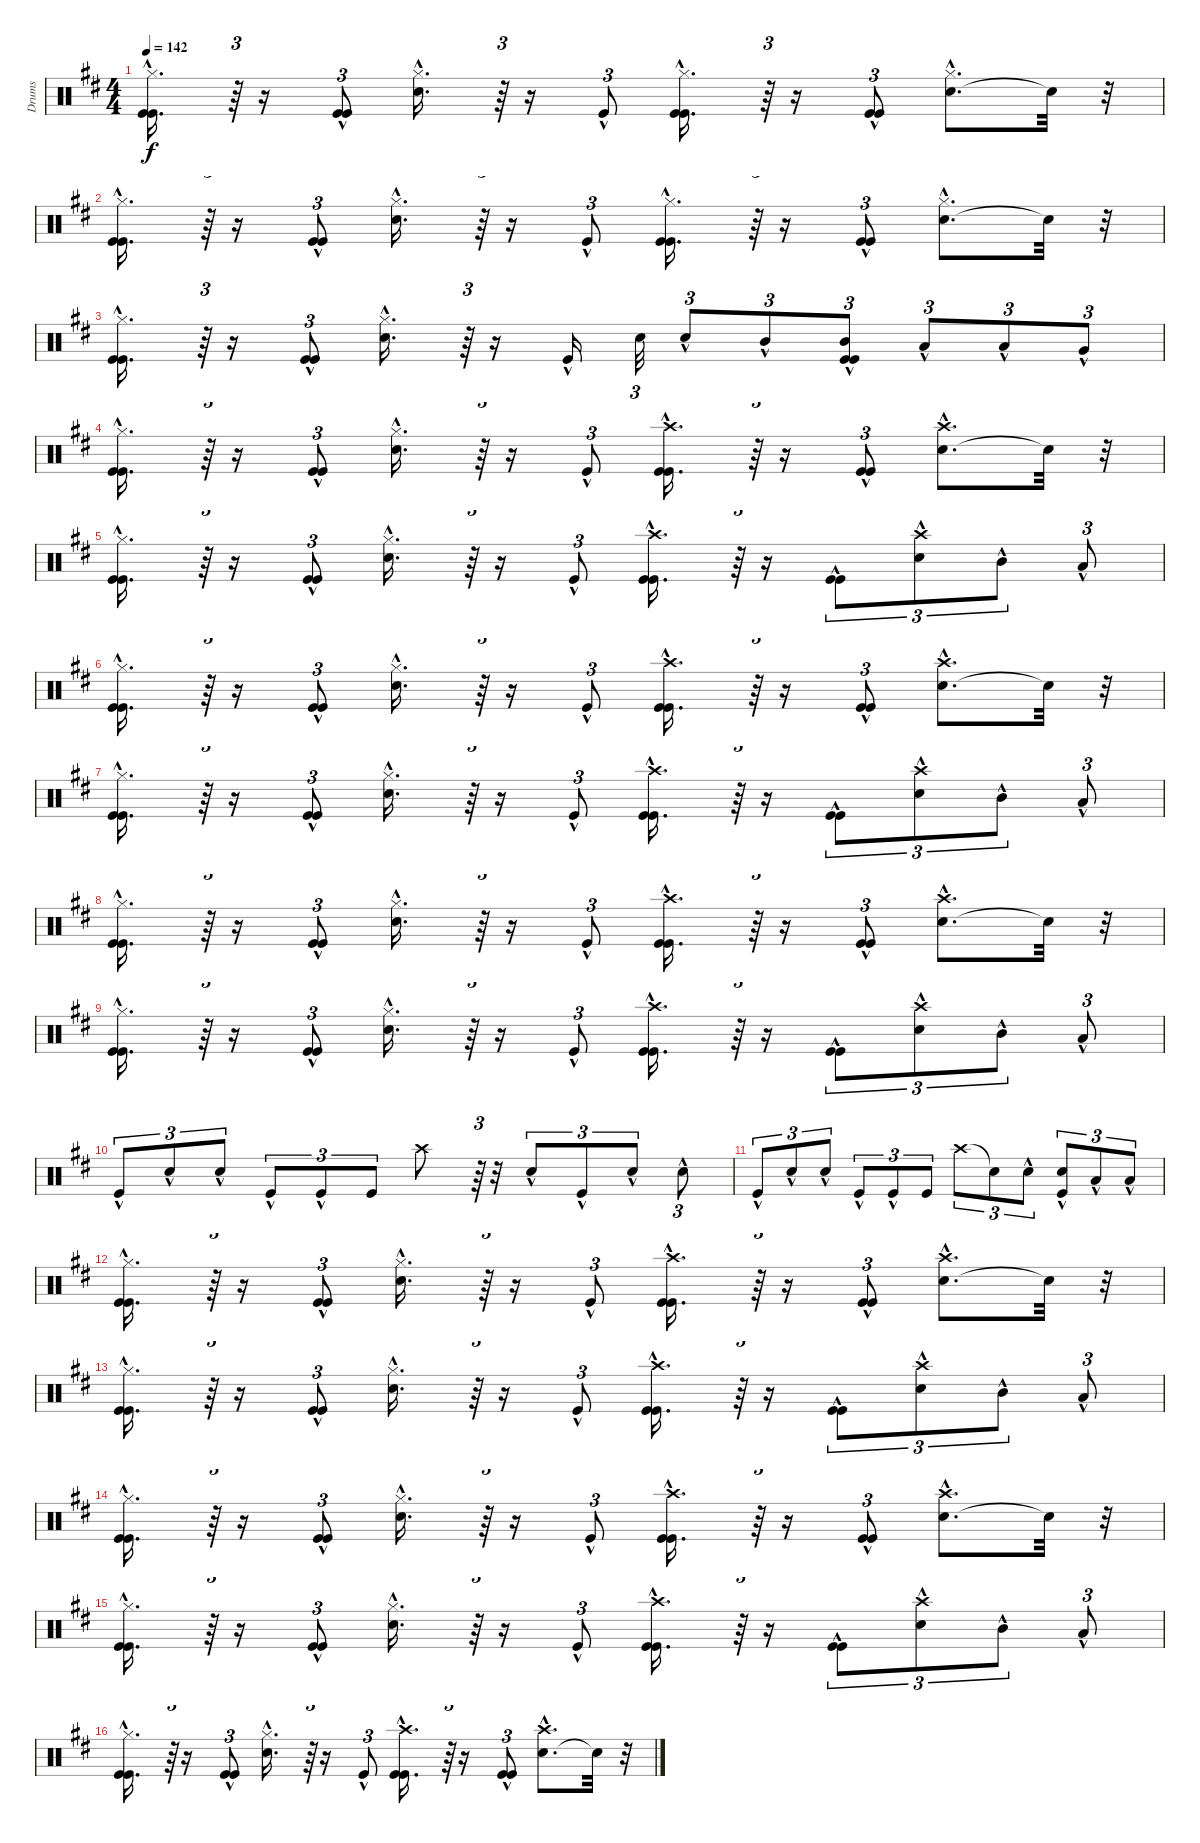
\track ("Drums" "Drums") {instrument percussion}
\staff {score}
\articulation defaults
\ts (4 4)
\tempo 142
\clef neutral
\ks bminor
("Kick (hit)"{hac} "Kick (hit)"{hac} "Hi-Hat (closed)"{hac}).16{d dy f} r.64{tu (3 2)} r.16 ("Kick (hit)"{hac} "Kick (hit)"{hac}).8{tu (3 2)} ("Snare (hit) 2"{hac} "Hi-Hat (closed)"{hac}).16{d} r.64{tu (3 2)} r.16 "Kick (hit)"{hac}.8{tu (3 2)} ("Kick (hit)"{hac} "Kick (hit)"{hac} "Hi-Hat (closed)"{hac}).16{d} r.64{tu (3 2)} r.16 ("Kick (hit)"{hac} "Kick (hit)"{hac}).8{tu (3 2)} ("Snare (hit) 2"{hac} "Hi-Hat (closed)"{hac}).8{d} "Snare (hit)"{t}.32 r.32 |
("Kick (hit)"{hac} "Kick (hit)"{hac} "Hi-Hat (closed)"{hac}).16{d} r.64{tu (3 2)} r.16 ("Kick (hit)"{hac} "Kick (hit)"{hac}).8{tu (3 2)} ("Snare (hit) 2"{hac} "Hi-Hat (closed)"{hac}).16{d} r.64{tu (3 2)} r.16 "Kick (hit)"{hac}.8{tu (3 2)} ("Kick (hit)"{hac} "Kick (hit)"{hac} "Hi-Hat (closed)"{hac}).16{d} r.64{tu (3 2)} r.16 ("Kick (hit)"{hac} "Kick (hit)"{hac}).8{tu (3 2)} ("Snare (hit) 2"{hac} "Hi-Hat (closed)"{hac}).8{d} "Snare (hit)"{t}.32 r.32 |
("Kick (hit)"{hac} "Kick (hit)"{hac} "Hi-Hat (closed)"{hac}).16{d} r.64{tu (3 2)} r.16 ("Kick (hit)"{hac} "Kick (hit)"{hac}).8{tu (3 2)} ("Snare (hit) 2"{hac} "Hi-Hat (closed)"{hac}).16{d} r.64{tu (3 2)} r.16 "Kick (hit)"{hac}.16 "Snare (hit) 2".32{tu (3 2)} "Snare (hit) 2"{hac}.8{tu (3 2)} "Mid Tom (hit)"{hac}.8{tu (3 2)} ("Kick (hit)"{hac} "Kick (hit)"{hac} "Mid Tom (hit)"{hac}).8{tu (3 2)} "Low Tom (hit)"{hac}.8{tu (3 2)} "Low Tom (hit)"{hac}.8{tu (3 2)} "Very Low Tom (hit)"{hac}.8{tu (3 2)} |
("Kick (hit)"{hac} "Kick (hit)"{hac} "Hi-Hat (closed)"{hac}).16{d} r.64{tu (3 2)} r.16 ("Kick (hit)"{hac} "Kick (hit)"{hac}).8{tu (3 2)} ("Snare (hit) 2"{hac} "Hi-Hat (closed)"{hac}).16{d} r.64{tu (3 2)} r.16 "Kick (hit)"{hac}.8{tu (3 2)} ("Kick (hit)"{hac} "Kick (hit)"{hac} "Crash high (hit)"{hac}).16{d} r.64{tu (3 2)} r.16 ("Kick (hit)"{hac} "Kick (hit)"{hac}).8{tu (3 2)} ("Snare (hit) 2"{hac} "Crash high (hit)"{hac}).8{d} "Snare (hit)"{t}.32 r.32 |
("Kick (hit)"{hac} "Kick (hit)"{hac} "Hi-Hat (closed)"{hac}).16{d} r.64{tu (3 2)} r.16 ("Kick (hit)"{hac} "Kick (hit)"{hac}).8{tu (3 2)} ("Snare (hit) 2"{hac} "Hi-Hat (closed)"{hac}).16{d} r.64{tu (3 2)} r.16 "Kick (hit)"{hac}.8{tu (3 2)} ("Kick (hit)"{hac} "Kick (hit)"{hac} "Crash high (hit)"{hac}).16{d} r.64{tu (3 2)} r.16 ("Kick (hit)"{hac} "Kick (hit)"{hac}).8{tu (3 2)} ("Snare (hit) 2"{hac} "Crash high (hit)"{hac}).8{tu (3 2)} "Mid Tom (hit)"{hac}.8{tu (3 2)} "Low Tom (hit)"{hac}.8{tu (3 2)} |
("Kick (hit)"{hac} "Kick (hit)"{hac} "Hi-Hat (closed)"{hac}).16{d} r.64{tu (3 2)} r.16 ("Kick (hit)"{hac} "Kick (hit)"{hac}).8{tu (3 2)} ("Snare (hit) 2"{hac} "Hi-Hat (closed)"{hac}).16{d} r.64{tu (3 2)} r.16 "Kick (hit)"{hac}.8{tu (3 2)} ("Kick (hit)"{hac} "Kick (hit)"{hac} "Crash high (hit)"{hac}).16{d} r.64{tu (3 2)} r.16 ("Kick (hit)"{hac} "Kick (hit)"{hac}).8{tu (3 2)} ("Snare (hit) 2"{hac} "Crash high (hit)"{hac}).8{d} "Snare (hit)"{t}.32 r.32 |
("Kick (hit)"{hac} "Kick (hit)"{hac} "Hi-Hat (closed)"{hac}).16{d} r.64{tu (3 2)} r.16 ("Kick (hit)"{hac} "Kick (hit)"{hac}).8{tu (3 2)} ("Snare (hit) 2"{hac} "Hi-Hat (closed)"{hac}).16{d} r.64{tu (3 2)} r.16 "Kick (hit)"{hac}.8{tu (3 2)} ("Kick (hit)"{hac} "Kick (hit)"{hac} "Crash high (hit)"{hac}).16{d} r.64{tu (3 2)} r.16 ("Kick (hit)"{hac} "Kick (hit)"{hac}).8{tu (3 2)} ("Snare (hit) 2"{hac} "Crash high (hit)"{hac}).8{tu (3 2)} "Mid Tom (hit)"{hac}.8{tu (3 2)} "Low Tom (hit)"{hac}.8{tu (3 2)} |
("Kick (hit)"{hac} "Kick (hit)"{hac} "Hi-Hat (closed)"{hac}).16{d} r.64{tu (3 2)} r.16 ("Kick (hit)"{hac} "Kick (hit)"{hac}).8{tu (3 2)} ("Snare (hit) 2"{hac} "Hi-Hat (closed)"{hac}).16{d} r.64{tu (3 2)} r.16 "Kick (hit)"{hac}.8{tu (3 2)} ("Kick (hit)"{hac} "Kick (hit)"{hac} "Crash high (hit)"{hac}).16{d} r.64{tu (3 2)} r.16 ("Kick (hit)"{hac} "Kick (hit)"{hac}).8{tu (3 2)} ("Snare (hit) 2"{hac} "Crash high (hit)"{hac}).8{d} "Snare (hit)"{t}.32 r.32 |
("Kick (hit)"{hac} "Kick (hit)"{hac} "Hi-Hat (closed)"{hac}).16{d} r.64{tu (3 2)} r.16 ("Kick (hit)"{hac} "Kick (hit)"{hac}).8{tu (3 2)} ("Snare (hit) 2"{hac} "Hi-Hat (closed)"{hac}).16{d} r.64{tu (3 2)} r.16 "Kick (hit)"{hac}.8{tu (3 2)} ("Kick (hit)"{hac} "Kick (hit)"{hac} "Crash high (hit)"{hac}).16{d} r.64{tu (3 2)} r.16 ("Kick (hit)"{hac} "Kick (hit)"{hac}).8{tu (3 2)} ("Snare (hit) 2"{hac} "Crash high (hit)"{hac}).8{tu (3 2)} "Mid Tom (hit)"{hac}.8{tu (3 2)} "Low Tom (hit)"{hac}.8{tu (3 2)} |
"Kick (hit)"{hac}.8{tu (3 2)} "Snare (hit) 2"{hac}.8{tu (3 2)} "Snare (hit) 2"{hac}.8{tu (3 2)} "Kick (hit)"{hac}.8{tu (3 2)} "Kick (hit)"{hac}.8{tu (3 2)} "Kick (hit)".8{tu (3 2)} "Crash high (hit)".8 r.64{tu (3 2)} r.32 "Snare (hit) 2"{hac}.8{tu (3 2)} "Kick (hit)"{hac}.8{tu (3 2)} "Snare (hit) 2"{hac}.8{tu (3 2)} "Snare (hit) 2"{hac}.8{tu (3 2)} |
"Kick (hit)"{hac}.8{tu (3 2)} "Snare (hit) 2"{hac}.8{tu (3 2)} "Snare (hit) 2"{hac}.8{tu (3 2)} "Kick (hit)"{hac}.8{tu (3 2)} "Kick (hit)"{hac}.8{tu (3 2)} "Kick (hit)".8{tu (3 2)} "Crash high (hit)".8{tu (3 2)} "Snare (hit)"{t}.8{tu (3 2)} "Snare (hit) 2"{hac}.8{tu (3 2)} ("Kick (hit)"{hac} "Snare (hit) 2"{hac}).8{tu (3 2)} "Low Floor Tom (hit)"{hac}.8{tu (3 2)} "Low Floor Tom (hit)"{hac}.8{tu (3 2)} |
("Kick (hit)"{hac} "Kick (hit)"{hac} "Hi-Hat (closed)"{hac}).16{d} r.64{tu (3 2)} r.16 ("Kick (hit)"{hac} "Kick (hit)"{hac}).8{tu (3 2)} ("Snare (hit) 2"{hac} "Hi-Hat (closed)"{hac}).16{d} r.64{tu (3 2)} r.16 "Kick (hit)"{hac}.8{tu (3 2)} ("Kick (hit)"{hac} "Kick (hit)"{hac} "Crash high (hit)"{hac}).16{d} r.64{tu (3 2)} r.16 ("Kick (hit)"{hac} "Kick (hit)"{hac}).8{tu (3 2)} ("Snare (hit) 2"{hac} "Crash high (hit)"{hac}).8{d} "Snare (hit)"{t}.32 r.32 |
("Kick (hit)"{hac} "Kick (hit)"{hac} "Hi-Hat (closed)"{hac}).16{d} r.64{tu (3 2)} r.16 ("Kick (hit)"{hac} "Kick (hit)"{hac}).8{tu (3 2)} ("Snare (hit) 2"{hac} "Hi-Hat (closed)"{hac}).16{d} r.64{tu (3 2)} r.16 "Kick (hit)"{hac}.8{tu (3 2)} ("Kick (hit)"{hac} "Kick (hit)"{hac} "Crash high (hit)"{hac}).16{d} r.64{tu (3 2)} r.16 ("Kick (hit)"{hac} "Kick (hit)"{hac}).8{tu (3 2)} ("Snare (hit) 2"{hac} "Crash high (hit)"{hac}).8{tu (3 2)} "Mid Tom (hit)"{hac}.8{tu (3 2)} "Low Tom (hit)"{hac}.8{tu (3 2)} |
("Kick (hit)"{hac} "Kick (hit)"{hac} "Hi-Hat (closed)"{hac}).16{d} r.64{tu (3 2)} r.16 ("Kick (hit)"{hac} "Kick (hit)"{hac}).8{tu (3 2)} ("Snare (hit) 2"{hac} "Hi-Hat (closed)"{hac}).16{d} r.64{tu (3 2)} r.16 "Kick (hit)"{hac}.8{tu (3 2)} ("Kick (hit)"{hac} "Kick (hit)"{hac} "Crash high (hit)"{hac}).16{d} r.64{tu (3 2)} r.16 ("Kick (hit)"{hac} "Kick (hit)"{hac}).8{tu (3 2)} ("Snare (hit) 2"{hac} "Crash high (hit)"{hac}).8{d} "Snare (hit)"{t}.32 r.32 |
("Kick (hit)"{hac} "Kick (hit)"{hac} "Hi-Hat (closed)"{hac}).16{d} r.64{tu (3 2)} r.16 ("Kick (hit)"{hac} "Kick (hit)"{hac}).8{tu (3 2)} ("Snare (hit) 2"{hac} "Hi-Hat (closed)"{hac}).16{d} r.64{tu (3 2)} r.16 "Kick (hit)"{hac}.8{tu (3 2)} ("Kick (hit)"{hac} "Kick (hit)"{hac} "Crash high (hit)"{hac}).16{d} r.64{tu (3 2)} r.16 ("Kick (hit)"{hac} "Kick (hit)"{hac}).8{tu (3 2)} ("Snare (hit) 2"{hac} "Crash high (hit)"{hac}).8{tu (3 2)} "Mid Tom (hit)"{hac}.8{tu (3 2)} "Low Tom (hit)"{hac}.8{tu (3 2)} |
("Kick (hit)"{hac} "Kick (hit)"{hac} "Hi-Hat (closed)"{hac}).16{d} r.64{tu (3 2)} r.16 ("Kick (hit)"{hac} "Kick (hit)"{hac}).8{tu (3 2)} ("Snare (hit) 2"{hac} "Hi-Hat (closed)"{hac}).16{d} r.64{tu (3 2)} r.16 "Kick (hit)"{hac}.8{tu (3 2)} ("Kick (hit)"{hac} "Kick (hit)"{hac} "Crash high (hit)"{hac}).16{d} r.64{tu (3 2)} r.16 ("Kick (hit)"{hac} "Kick (hit)"{hac}).8{tu (3 2)} ("Snare (hit) 2"{hac} "Crash high (hit)"{hac}).8{d} "Snare (hit)"{t}.32 r.32
